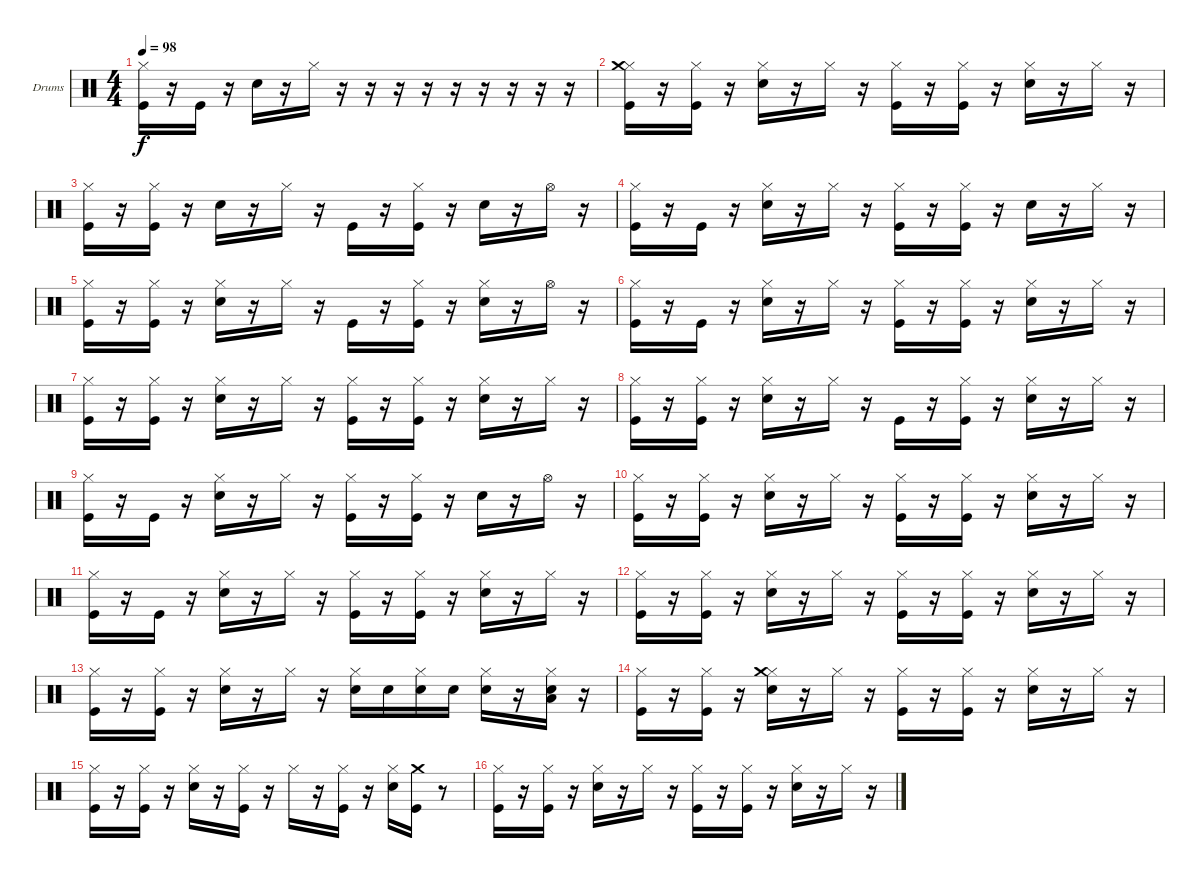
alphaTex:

\bracketExtendMode groupsimilarinstruments
\firstSystemTrackNameOrientation horizontal
\otherSystemsTrackNameOrientation horizontal
\track ("Drumkit" "Drums") {instrument percussion}
\staff {score}
\articulation defaults
\ts (4 4)
\tempo 98
\clef neutral
\ks c
("Kick (hit)" "Hi-Hat (closed)").16{dy f} r.16 "Kick (hit)".16 r.16 "Snare (hit) 2".16 r.16 "Hi-Hat (closed)".16 r.16 r.16 r.16 r.16 r.16 r.16 r.16 r.16 r.16 |
("Kick (hit)" "Hi-Hat (closed)" "Crash medium (hit)").16 r.16 ("Kick (hit)" "Hi-Hat (closed)").16 r.16 ("Snare (hit) 2" "Hi-Hat (closed)").16 r.16 "Hi-Hat (closed)".16 r.16 ("Kick (hit)" "Hi-Hat (closed)").16 r.16 ("Kick (hit)" "Hi-Hat (closed)").16 r.16 ("Snare (hit) 2" "Hi-Hat (closed)").16 r.16 "Hi-Hat (closed)".16 r.16 |
("Kick (hit)" "Hi-Hat (closed)").16 r.16 ("Kick (hit)" "Hi-Hat (closed)").16 r.16 "Snare (hit) 2".16 r.16 "Hi-Hat (closed)".16 r.16 "Kick (hit)".16 r.16 ("Kick (hit)" "Hi-Hat (closed)").16 r.16 "Snare (hit) 2".16 r.16 "Hi-Hat (open)".16 r.16 |
("Kick (hit)" "Hi-Hat (closed)").16 r.16 "Kick (hit)".16 r.16 ("Snare (hit) 2" "Hi-Hat (closed)").16 r.16 "Hi-Hat (closed)".16 r.16 ("Kick (hit)" "Hi-Hat (closed)").16 r.16 ("Kick (hit)" "Hi-Hat (closed)").16 r.16 "Snare (hit) 2".16 r.16 "Hi-Hat (closed)".16 r.16 |
("Kick (hit)" "Hi-Hat (closed)").16 r.16 ("Kick (hit)" "Hi-Hat (closed)").16 r.16 ("Snare (hit) 2" "Hi-Hat (closed)").16 r.16 "Hi-Hat (closed)".16 r.16 "Kick (hit)".16 r.16 ("Kick (hit)" "Hi-Hat (closed)").16 r.16 ("Snare (hit) 2" "Hi-Hat (closed)").16 r.16 "Hi-Hat (open)".16 r.16 |
("Kick (hit)" "Hi-Hat (closed)").16 r.16 "Kick (hit)".16 r.16 ("Snare (hit) 2" "Hi-Hat (closed)").16 r.16 "Hi-Hat (closed)".16 r.16 ("Kick (hit)" "Hi-Hat (closed)").16 r.16 ("Kick (hit)" "Hi-Hat (closed)").16 r.16 ("Snare (hit) 2" "Hi-Hat (closed)").16 r.16 "Hi-Hat (closed)".16 r.16 |
("Kick (hit)" "Hi-Hat (closed)").16 r.16 ("Kick (hit)" "Hi-Hat (closed)").16 r.16 ("Snare (hit) 2" "Hi-Hat (closed)").16 r.16 "Hi-Hat (closed)".16 r.16 ("Kick (hit)" "Hi-Hat (closed)").16 r.16 ("Kick (hit)" "Hi-Hat (closed)").16 r.16 ("Snare (hit) 2" "Hi-Hat (closed)").16 r.16 "Hi-Hat (closed)".16 r.16 |
("Kick (hit)" "Hi-Hat (closed)").16 r.16 ("Kick (hit)" "Hi-Hat (closed)").16 r.16 ("Snare (hit) 2" "Hi-Hat (closed)").16 r.16 "Hi-Hat (closed)".16 r.16 "Kick (hit)".16 r.16 ("Kick (hit)" "Hi-Hat (closed)").16 r.16 ("Snare (hit) 2" "Hi-Hat (closed)").16 r.16 "Hi-Hat (closed)".16 r.16 |
("Kick (hit)" "Hi-Hat (closed)").16 r.16 "Kick (hit)".16 r.16 ("Snare (hit) 2" "Hi-Hat (closed)").16 r.16 "Hi-Hat (closed)".16 r.16 ("Kick (hit)" "Hi-Hat (closed)").16 r.16 ("Kick (hit)" "Hi-Hat (closed)").16 r.16 "Snare (hit) 2".16 r.16 "Hi-Hat (open)".16 r.16 |
("Kick (hit)" "Hi-Hat (closed)").16 r.16 ("Kick (hit)" "Hi-Hat (closed)").16 r.16 ("Snare (hit) 2" "Hi-Hat (closed)").16 r.16 "Hi-Hat (closed)".16 r.16 ("Kick (hit)" "Hi-Hat (closed)").16 r.16 ("Kick (hit)" "Hi-Hat (closed)").16 r.16 ("Snare (hit) 2" "Hi-Hat (closed)").16 r.16 "Hi-Hat (closed)".16 r.16 |
("Kick (hit)" "Hi-Hat (closed)").16 r.16 "Kick (hit)".16 r.16 ("Snare (hit) 2" "Hi-Hat (closed)").16 r.16 "Hi-Hat (closed)".16 r.16 ("Kick (hit)" "Hi-Hat (closed)").16 r.16 ("Kick (hit)" "Hi-Hat (closed)").16 r.16 ("Snare (hit) 2" "Hi-Hat (closed)").16 r.16 "Hi-Hat (closed)".16 r.16 |
("Kick (hit)" "Hi-Hat (closed)").16 r.16 ("Kick (hit)" "Hi-Hat (closed)").16 r.16 ("Snare (hit) 2" "Hi-Hat (closed)").16 r.16 "Hi-Hat (closed)".16 r.16 ("Kick (hit)" "Hi-Hat (closed)").16 r.16 ("Kick (hit)" "Hi-Hat (closed)").16 r.16 ("Snare (hit) 2" "Hi-Hat (closed)").16 r.16 "Hi-Hat (closed)".16 r.16 |
("Kick (hit)" "Hi-Hat (closed)").16 r.16 ("Kick (hit)" "Hi-Hat (closed)").16 r.16 ("Snare (hit) 2" "Hi-Hat (closed)").16 r.16 "Hi-Hat (closed)".16 r.16 ("Snare (hit) 2" "Hi-Hat (closed)").16 "Snare (hit) 2".16 ("Snare (hit) 2" "Hi-Hat (closed)").16 "Snare (hit) 2".16 ("Snare (hit) 2" "Hi-Hat (closed)").16 r.16 ("Snare (hit) 2" "Hi-Hat (closed)" "Low Tom (hit)").16 r.16 |
("Kick (hit)" "Hi-Hat (closed)").16 r.16 ("Kick (hit)" "Hi-Hat (closed)").16 r.16 ("Snare (hit) 2" "Hi-Hat (closed)" "Crash medium (hit)").16 r.16 "Hi-Hat (closed)".16 r.16 ("Kick (hit)" "Hi-Hat (closed)").16 r.16 ("Kick (hit)" "Hi-Hat (closed)").16 r.16 ("Snare (hit) 2" "Hi-Hat (closed)").16 r.16 "Hi-Hat (closed)".16 r.16 |
("Kick (hit)" "Hi-Hat (closed)").16 r.16 ("Kick (hit)" "Hi-Hat (closed)").16 r.16 ("Snare (hit) 2" "Hi-Hat (closed)").16 r.16 ("Kick (hit)" "Hi-Hat (closed)").16 r.16 "Hi-Hat (closed)".16 r.16 ("Kick (hit)" "Hi-Hat (closed)").16 r.16 ("Snare (hit) 2" "Hi-Hat (closed)").16 ("Kick (hit)" "Crash medium (hit)").16 r.8 |
("Kick (hit)" "Hi-Hat (closed)").16 r.16 ("Kick (hit)" "Hi-Hat (closed)").16 r.16 ("Snare (hit) 2" "Hi-Hat (closed)").16 r.16 "Hi-Hat (closed)".16 r.16 ("Kick (hit)" "Hi-Hat (closed)").16 r.16 ("Kick (hit)" "Hi-Hat (closed)").16 r.16 ("Snare (hit) 2" "Hi-Hat (closed)").16 r.16 "Hi-Hat (closed)".16 r.16
